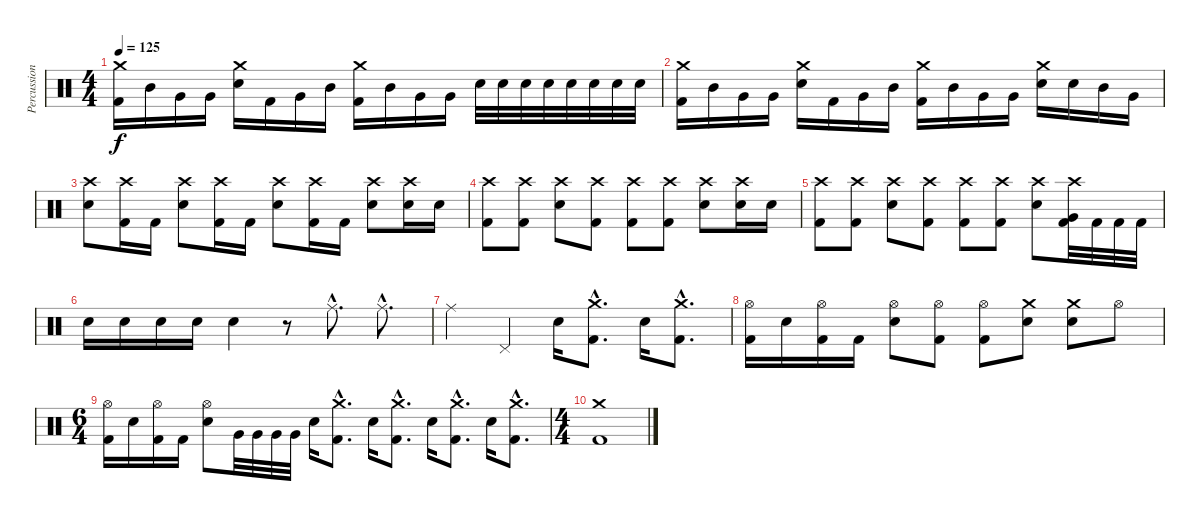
\track ("Percussion" "Percussion") {instrument percussion}
\staff {score}
\articulation defaults
\ts (4 4)
\tempo 125
\clef neutral
\ks c
("Crash medium (hit)" "Kick (hit) 2").16{dy f} "Mid Tom (hit)".16 "Very Low Tom (hit)".16 "Very Low Tom (hit)".16 ("Crash medium (hit)" "Snare (hit) 2").16 "Kick (hit) 2".16 "Very Low Tom (hit)".16 "Mid Tom (hit)".16 ("Crash medium (hit)" "Kick (hit) 2").16 "Mid Tom (hit)".16 "Very Low Tom (hit)".16 "Very Low Tom (hit)".16 "Snare (hit) 2".32 "Snare (hit) 2".32 "Snare (hit) 2".32 "Snare (hit) 2".32 "Snare (hit) 2".32 "Snare (hit) 2".32 "Snare (hit) 2".32 "Snare (hit) 2".32 |
("Crash medium (hit)" "Kick (hit) 2").16 "Mid Tom (hit)".16 "Very Low Tom (hit)".16 "Very Low Tom (hit)".16 ("Crash medium (hit)" "Snare (hit) 2").16 "Kick (hit) 2".16 "Very Low Tom (hit)".16 "Mid Tom (hit)".16 ("Crash medium (hit)" "Kick (hit) 2").16 "Mid Tom (hit)".16 "Very Low Tom (hit)".16 "Very Low Tom (hit)".16 ("Crash medium (hit)" "Snare (hit) 2").16 "Snare (hit) 2".16 "Mid Tom (hit)".16 "Very Low Tom (hit)".16 |
("Crash high (hit)" "Snare (hit) 2").8 ("Crash high (hit)" "Kick (hit) 2").16 "Kick (hit) 2".16 ("Crash high (hit)" "Snare (hit) 2").8 ("Crash high (hit)" "Kick (hit) 2").16 "Kick (hit) 2".16 ("Crash high (hit)" "Snare (hit) 2").8 ("Crash high (hit)" "Kick (hit) 2").16 "Kick (hit) 2".16 ("Crash high (hit)" "Snare (hit) 2").8 ("Crash high (hit)" "Snare (hit) 2").16 "Snare (hit) 2".16 |
("Crash high (hit)" "Kick (hit) 2").8 ("Crash high (hit)" "Kick (hit) 2").8 ("Crash high (hit)" "Snare (hit) 2").8 ("Crash high (hit)" "Kick (hit) 2").8 ("Crash high (hit)" "Kick (hit) 2").8 ("Crash high (hit)" "Kick (hit) 2").8 ("Crash high (hit)" "Snare (hit) 2").8 ("Crash high (hit)" "Snare (hit) 2").16 "Snare (hit) 2".16 |
("Crash high (hit)" "Kick (hit) 2").8 ("Crash high (hit)" "Kick (hit) 2").8 ("Crash high (hit)" "Snare (hit) 2").8 ("Crash high (hit)" "Kick (hit) 2").8 ("Crash high (hit)" "Kick (hit) 2").8 ("Crash high (hit)" "Kick (hit) 2").8 ("Crash high (hit)" "Snare (hit) 2").8 ("Crash high (hit)" "Very Low Tom (hit)" "Kick (hit) 2").32 "Kick (hit) 2".32 "Kick (hit) 2".32 "Kick (hit) 2".32 |
"Snare (hit) 2".16 "Snare (hit) 2".16 "Snare (hit) 2".16 "Snare (hit) 2".16 "Snare (hit) 2".4 r.8 "Ride (middle)"{hac}.8{d} "Ride (middle)"{hac}.8{d} |
"Ride (middle)".4 "Pedal Hi-Hat (hit)".4 "Snare (hit) 2".16 ("Crash medium (hit)"{hac} "Kick (hit) 2"{hac}).8{d} "Snare (hit) 2".16 ("Crash medium (hit)"{hac} "Kick (hit) 2"{hac}).8{d} |
("Hi-Hat (open)" "Kick (hit) 2").16 "Snare (hit) 2".16 ("Hi-Hat (open)" "Kick (hit) 2").16 "Kick (hit) 2".16 ("Hi-Hat (open)" "Snare (hit) 2").8 ("Hi-Hat (open)" "Kick (hit) 2").8 ("Hi-Hat (open)" "Kick (hit) 2").8 ("Crash medium (hit)" "Snare (hit) 2").8 ("Crash medium (hit)" "Snare (hit) 2").8 "Hi-Hat (open)".8 |
\ts (6 4)
("Hi-Hat (open)" "Kick (hit) 2").16 "Snare (hit) 2".16 ("Hi-Hat (open)" "Kick (hit) 2").16 "Kick (hit) 2".16 ("Hi-Hat (open)" "Snare (hit) 2").8 "Very Low Tom (hit)".32 "Very Low Tom (hit)".32 "Very Low Tom (hit)".32 "Very Low Tom (hit)".32 "Snare (hit) 2".16 ("Crash medium (hit)"{hac} "Kick (hit) 2"{hac}).8{d} "Snare (hit) 2".16 ("Crash medium (hit)"{hac} "Kick (hit) 2"{hac}).8{d} "Snare (hit) 2".16 ("Crash medium (hit)"{hac} "Kick (hit) 2"{hac}).8{d} "Snare (hit) 2".16 ("Crash medium (hit)"{hac} "Kick (hit) 2"{hac}).8{d} |
\ts (4 4)
("Crash medium (hit)" "Kick (hit) 2").1
